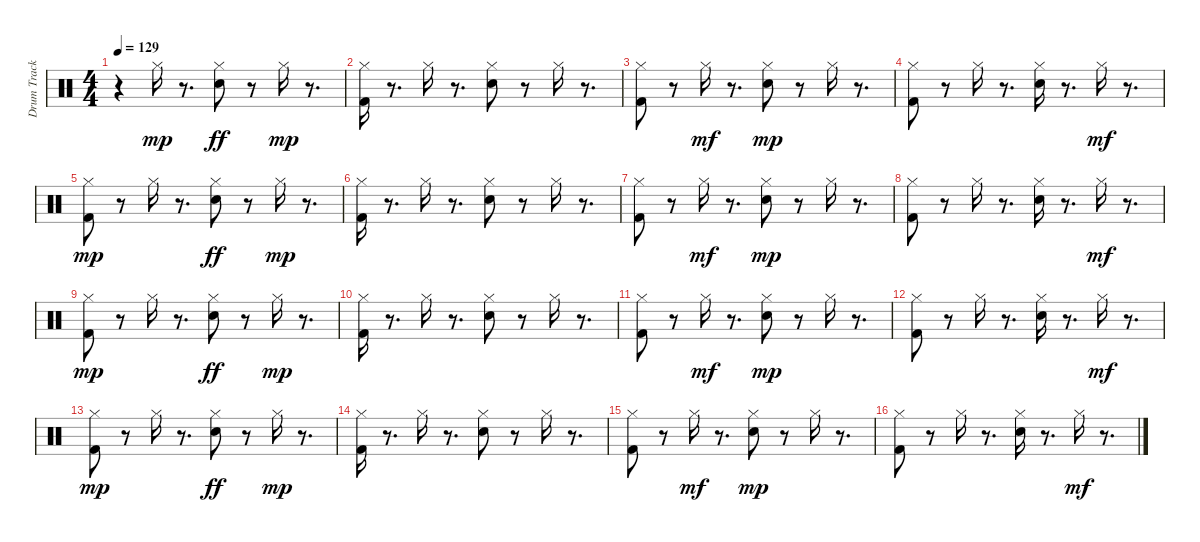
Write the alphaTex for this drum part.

\track ("Drum Track 1" "Drum Track") {instrument percussion}
\staff {score}
\articulation defaults
\ts (4 4)
\tempo 129
\clef neutral
\ks c
r.4{dy mp} "Hi-Hat (closed)".16{volume 2} r.8{d} ("Hi-Hat (closed)" "Snare (hit) 2").8{dy ff volume 4} r.8 "Hi-Hat (closed)".16{dy mp volume 5} r.8{d} |
("Kick (hit) 2" "Hi-Hat (closed)").16{volume 6} r.8{d} "Hi-Hat (closed)".16{volume 8} r.8{d} ("Snare (hit) 2" "Hi-Hat (closed)").8{volume 9} r.8 "Hi-Hat (closed)".16{volume 10} r.8{d} |
("Kick (hit) 2" "Hi-Hat (closed)").8{volume 11} r.8 "Hi-Hat (closed)".16{dy mf volume 14} r.8{d} ("Hi-Hat (closed)" "Snare (hit) 2").8{dy mp} r.8 "Hi-Hat (closed)".16 r.8{d} |
("Hi-Hat (closed)" "Kick (hit) 2").8 r.8 "Hi-Hat (closed)".16 r.8{d} ("Hi-Hat (closed)" "Snare (hit) 2").16 r.8{d} "Hi-Hat (closed)".16{dy mf} r.8{d} |
("Kick (hit) 2" "Hi-Hat (closed)").8{dy mp} r.8 "Hi-Hat (closed)".16 r.8{d} ("Hi-Hat (closed)" "Snare (hit) 2").8{dy ff} r.8 "Hi-Hat (closed)".16{dy mp} r.8{d} |
("Kick (hit) 2" "Hi-Hat (closed)").16 r.8{d} "Hi-Hat (closed)".16 r.8{d} ("Snare (hit) 2" "Hi-Hat (closed)").8 r.8 "Hi-Hat (closed)".16 r.8{d} |
("Kick (hit) 2" "Hi-Hat (closed)").8 r.8 "Hi-Hat (closed)".16{dy mf} r.8{d} ("Hi-Hat (closed)" "Snare (hit) 2").8{dy mp} r.8 "Hi-Hat (closed)".16 r.8{d} |
("Hi-Hat (closed)" "Kick (hit) 2").8 r.8 "Hi-Hat (closed)".16 r.8{d} ("Hi-Hat (closed)" "Snare (hit) 2").16 r.8{d} "Hi-Hat (closed)".16{dy mf} r.8{d} |
("Kick (hit) 2" "Hi-Hat (closed)").8{dy mp} r.8 "Hi-Hat (closed)".16 r.8{d} ("Hi-Hat (closed)" "Snare (hit) 2").8{dy ff} r.8 "Hi-Hat (closed)".16{dy mp} r.8{d} |
("Kick (hit) 2" "Hi-Hat (closed)").16 r.8{d} "Hi-Hat (closed)".16 r.8{d} ("Snare (hit) 2" "Hi-Hat (closed)").8 r.8 "Hi-Hat (closed)".16 r.8{d} |
("Kick (hit) 2" "Hi-Hat (closed)").8 r.8 "Hi-Hat (closed)".16{dy mf} r.8{d} ("Hi-Hat (closed)" "Snare (hit) 2").8{dy mp} r.8 "Hi-Hat (closed)".16 r.8{d} |
("Hi-Hat (closed)" "Kick (hit) 2").8 r.8 "Hi-Hat (closed)".16 r.8{d} ("Hi-Hat (closed)" "Snare (hit) 2").16 r.8{d} "Hi-Hat (closed)".16{dy mf} r.8{d} |
("Kick (hit) 2" "Hi-Hat (closed)").8{dy mp} r.8 "Hi-Hat (closed)".16 r.8{d} ("Hi-Hat (closed)" "Snare (hit) 2").8{dy ff} r.8 "Hi-Hat (closed)".16{dy mp} r.8{d} |
("Kick (hit) 2" "Hi-Hat (closed)").16 r.8{d} "Hi-Hat (closed)".16 r.8{d} ("Snare (hit) 2" "Hi-Hat (closed)").8 r.8 "Hi-Hat (closed)".16 r.8{d} |
("Kick (hit) 2" "Hi-Hat (closed)").8 r.8 "Hi-Hat (closed)".16{dy mf} r.8{d} ("Hi-Hat (closed)" "Snare (hit) 2").8{dy mp} r.8 "Hi-Hat (closed)".16 r.8{d} |
("Hi-Hat (closed)" "Kick (hit) 2").8 r.8 "Hi-Hat (closed)".16 r.8{d} ("Hi-Hat (closed)" "Snare (hit) 2").16 r.8{d} "Hi-Hat (closed)".16{dy mf} r.8{d}
